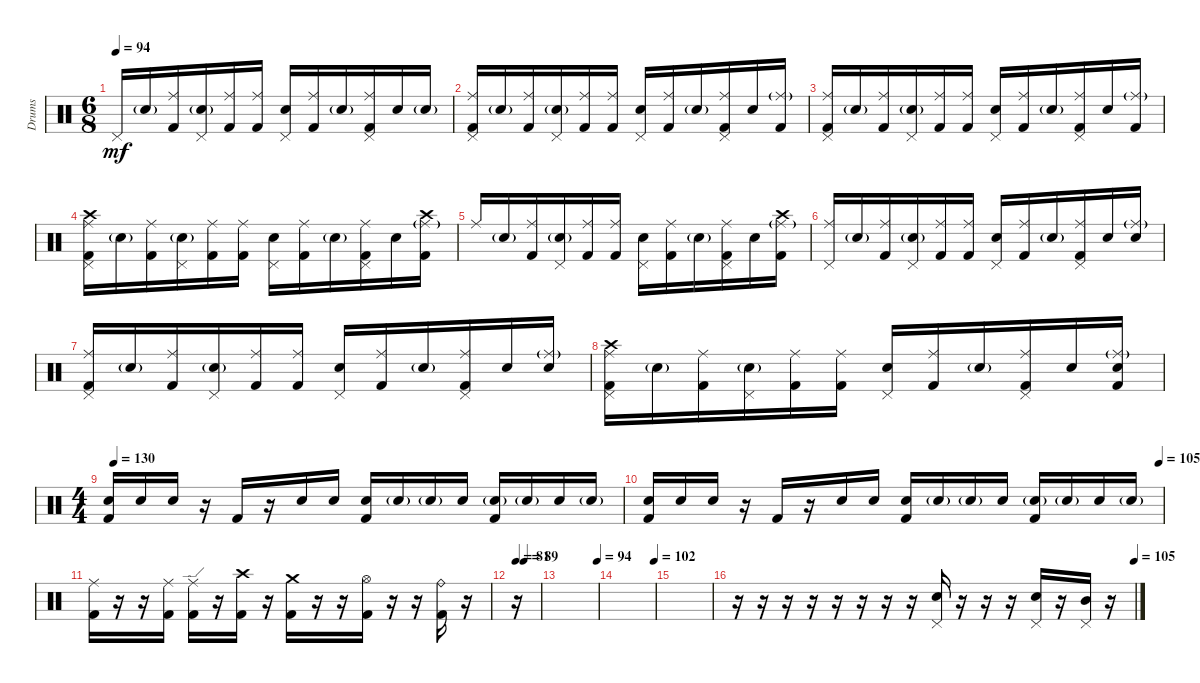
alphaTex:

\defaultSystemsLayout 4
\bracketExtendMode groupsimilarinstruments
\otherSystemsTrackNameOrientation horizontal
\track ("Godd" "Drums") {instrument percussion}
\staff {score}
\articulation defaults
\ts (6 8)
\tempo 94
\clef neutral
\scale
0.333333
\ks c "Pedal Hi-Hat (hit)".16{dy mf} "Snare (hit) 2"{g}.16
("Kick (hit) 2" "Ride (middle)").16 ("Snare (hit) 2"{g} "Pedal Hi-Hat (hit)").16 ("Kick (hit) 2" "Ride (middle)").16 ("Kick (hit) 2" "Ride (middle)").16 ("Snare (hit) 2" "Pedal Hi-Hat (hit)").16 ("Kick (hit) 2" "Ride (middle)").16 "Snare (hit) 2"{g}.16 ("Kick (hit) 2" "Ride (middle)" "Pedal Hi-Hat (hit)").16 "Snare (hit) 2".16 "Snare (hit) 2"{g}.16 |
\scale
0.333333 ("Pedal Hi-Hat (hit)" "Kick (hit) 2" "Ride (middle)").16 "Snare (hit) 2"{g}.16 ("Kick (hit) 2" "Ride (middle)").16 ("Snare (hit) 2"{g} "Pedal Hi-Hat (hit)").16 ("Kick (hit) 2" "Ride (middle)").16 ("Kick (hit) 2" "Ride (middle)").16 ("Snare (hit) 2" "Pedal Hi-Hat (hit)").16 ("Kick (hit) 2" "Ride (middle)").16 "Snare (hit) 2"{g}.16 ("Kick (hit) 2" "Ride (middle)" "Pedal Hi-Hat (hit)").16 "Snare (hit) 2".16 ("Kick (hit) 2" "Ride (middle)"{g}).16 |
\scale
0.333333 ("Pedal Hi-Hat (hit)" "Kick (hit) 2" "Ride (middle)").16 "Snare (hit) 2"{g}.16 ("Kick (hit) 2" "Ride (middle)").16 ("Snare (hit) 2"{g} "Pedal Hi-Hat (hit)").16 ("Kick (hit) 2" "Ride (middle)").16 ("Kick (hit) 2" "Ride (middle)").16 ("Snare (hit) 2" "Pedal Hi-Hat (hit)").16 ("Kick (hit) 2" "Ride (middle)").16 "Snare (hit) 2"{g}.16 ("Kick (hit) 2" "Ride (middle)" "Pedal Hi-Hat (hit)").16 "Snare (hit) 2".16 ("Kick (hit) 2" "Ride (middle)"{g}).16 |
\scale
0.333333 ("Pedal Hi-Hat (hit)" "Kick (hit) 2" "Ride (middle)" "Crash high (hit)").16 "Snare (hit) 2"{g}.16 ("Kick (hit) 2" "Ride (middle)").16 ("Snare (hit) 2"{g} "Pedal Hi-Hat (hit)").16 ("Kick (hit) 2" "Ride (middle)").16 ("Kick (hit) 2" "Ride (middle)").16 ("Snare (hit) 2" "Pedal Hi-Hat (hit)").16 ("Kick (hit) 2" "Ride (middle)").16 "Snare (hit) 2"{g}.16 ("Kick (hit) 2" "Ride (middle)" "Pedal Hi-Hat (hit)").16 "Snare (hit) 2".16 ("Kick (hit) 2" "Ride (middle)"{g} "Crash high (hit)").16 |
\scale
0.333333 "Ride (middle)".16 "Snare (hit) 2"{g}.16 ("Kick (hit) 2" "Ride (middle)").16 ("Snare (hit) 2"{g} "Pedal Hi-Hat (hit)").16 ("Kick (hit) 2" "Ride (middle)").16 ("Kick (hit) 2" "Ride (middle)").16 ("Snare (hit) 2" "Pedal Hi-Hat (hit)").16 ("Kick (hit) 2" "Ride (middle)").16 "Snare (hit) 2"{g}.16 ("Kick (hit) 2" "Ride (middle)" "Pedal Hi-Hat (hit)").16 "Snare (hit) 2".16 ("Kick (hit) 2" "Ride (middle)"{g} "Crash high (hit)").16 |
\scale
0.333333 ("Pedal Hi-Hat (hit)" "Ride (middle)").16 "Snare (hit) 2"{g}.16 ("Kick (hit) 2" "Ride (middle)").16 ("Snare (hit) 2"{g} "Pedal Hi-Hat (hit)").16 ("Kick (hit) 2" "Ride (middle)").16 ("Kick (hit) 2" "Ride (middle)").16 ("Snare (hit) 2" "Pedal Hi-Hat (hit)").16 ("Kick (hit) 2" "Ride (middle)").16 "Snare (hit) 2"{g}.16 ("Kick (hit) 2" "Ride (middle)" "Pedal Hi-Hat (hit)").16 "Snare (hit) 2".16 ("Ride (middle)"{g} "Snare (hit) 2").16 |
\scale
0.263889 ("Pedal Hi-Hat (hit)" "Kick (hit) 2" "Ride (middle)").16 "Snare (hit) 2"{g}.16 ("Kick (hit) 2" "Ride (middle)").16 ("Snare (hit) 2"{g} "Pedal Hi-Hat (hit)").16 ("Kick (hit) 2" "Ride (middle)").16 ("Kick (hit) 2" "Ride (middle)").16 ("Snare (hit) 2" "Pedal Hi-Hat (hit)").16 ("Kick (hit) 2" "Ride (middle)").16 "Snare (hit) 2"{g}.16 ("Kick (hit) 2" "Ride (middle)" "Pedal Hi-Hat (hit)").16 "Snare (hit) 2".16 ("Ride (middle)"{g} "Snare (hit) 2").16 |
\scale
0.263889 ("Pedal Hi-Hat (hit)" "Kick (hit) 2" "Ride (middle)" "Crash high (hit)").16 "Snare (hit) 2"{g}.16 ("Kick (hit) 2" "Ride (middle)").16 ("Snare (hit) 2"{g} "Pedal Hi-Hat (hit)").16 ("Kick (hit) 2" "Ride (middle)").16 ("Kick (hit) 2" "Ride (middle)").16 ("Snare (hit) 2" "Pedal Hi-Hat (hit)").16 ("Kick (hit) 2" "Ride (middle)").16 "Snare (hit) 2"{g}.16 ("Kick (hit) 2" "Ride (middle)" "Pedal Hi-Hat (hit)").16 "Snare (hit) 2".16 ("Kick (hit) 2" "Ride (middle)"{g} "Snare (hit) 2").16 |
\ts (4 4)
\tempo (130 0.0125)
\scale
0.472222 ("Kick (hit) 2" "Snare (hit) 2").16 "Snare (hit) 2".16 "Snare (hit) 2".16 r.16 "Kick (hit) 2".16 r.16 "Snare (hit) 2".16 "Snare (hit) 2".16 ("Snare (hit) 2" "Kick (hit) 2").16 "Snare (hit) 2"{g}.16 "Snare (hit) 2"{g}.16 "Snare (hit) 2".16 ("Snare (hit) 2"{g} "Kick (hit) 2").16 "Snare (hit) 2"{g}.16 "Snare (hit) 2".16 "Snare (hit) 2"{g}.16 |
\tempo (105 0.99375)
\scale
0.333333 ("Kick (hit) 2" "Snare (hit) 2").16 "Snare (hit) 2".16 "Snare (hit) 2".16 r.16 "Kick (hit) 2".16 r.16 "Snare (hit) 2".16 "Snare (hit) 2".16 ("Snare (hit) 2" "Kick (hit) 2").16 "Snare (hit) 2"{g}.16 "Snare (hit) 2"{g}.16 "Snare (hit) 2".16 ("Snare (hit) 2"{g} "Kick (hit) 2").16 "Snare (hit) 2"{g}.16 "Snare (hit) 2".16 "Snare (hit) 2"{g}.16 |
\scale
0.333333 ("Kick (hit) 2" "Ride (middle)").16 r.16 r.16 ("Kick (hit) 2" "Ride (middle)").16 ("Kick (hit) 2" "Ride (edge)").16 r.16 ("Crash high (hit)" "Kick (hit) 2").16 r.16 ("Crash medium (hit)" "Kick (hit) 2").16 r.16 r.16 ("Kick (hit) 2" "Hi-Hat (open)").16 r.16 r.16 ("Kick (hit) 2" "Ride (bell)").16 r.16 |
\tempo 81
\tempo (89 0.34375)
\scale
0.333333 r.16 |
\tempo (94 1)
\scale
0.333333 |
\tempo (102 1)
\scale
0.333333 |
\scale
0.333333 |
\tempo (105 1)
r.16 r.16 r.16 r.16 r.16 r.16 r.16 r.16 ("Snare (hit) 2" "Pedal Hi-Hat (hit)").16 r.16 r.16 r.16 ("Snare (hit) 2" "Pedal Hi-Hat (hit)").16 r.16 ("Mid Tom (hit)" "Pedal Hi-Hat (hit)").16 r.16
